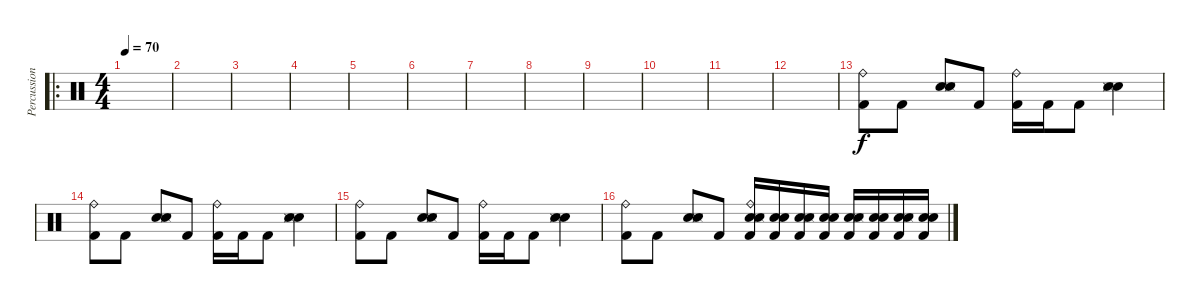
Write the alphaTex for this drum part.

\track ("Percussion2" "Percussion") {instrument percussion}
\staff {score}
\articulation defaults
\ro
\ts (4 4)
\tempo 70
\clef neutral
\ks c
|
|
|
|
|
|
|
|
|
|
|
|
("Kick (hit) 2" "Ride (bell)").8 "Kick (hit) 2".8 ("Hand Clap (hit)" "Electric Snare (hit)" "Snare (side stick) 3").8 "Kick (hit) 2".8 ("Kick (hit) 2" "Ride (bell)").16 "Kick (hit) 2".16 "Kick (hit) 2".8 ("Hand Clap (hit)" "Electric Snare (hit)" "Snare (side stick) 3").4 |
("Kick (hit) 2" "Ride (bell)").8 "Kick (hit) 2".8 ("Hand Clap (hit)" "Electric Snare (hit)" "Snare (side stick) 3").8 "Kick (hit) 2".8 ("Kick (hit) 2" "Ride (bell)").16 "Kick (hit) 2".16 "Kick (hit) 2".8 ("Hand Clap (hit)" "Electric Snare (hit)" "Snare (side stick) 3").4 |
("Kick (hit) 2" "Ride (bell)").8 "Kick (hit) 2".8 ("Hand Clap (hit)" "Electric Snare (hit)" "Snare (side stick) 3").8 "Kick (hit) 2".8 ("Kick (hit) 2" "Ride (bell)").16 "Kick (hit) 2".16 "Kick (hit) 2".8 ("Hand Clap (hit)" "Electric Snare (hit)" "Snare (side stick) 3").4 |
("Kick (hit) 2" "Ride (bell)").8 "Kick (hit) 2".8 ("Hand Clap (hit)" "Electric Snare (hit)" "Snare (side stick) 3").8 "Kick (hit) 2".8 ("Kick (hit) 2" "Hand Clap (hit)" "Electric Snare (hit)" "Snare (side stick) 3" "Ride (bell)").16 ("Kick (hit) 2" "Hand Clap (hit)" "Electric Snare (hit)").16 ("Kick (hit) 2" "Hand Clap (hit)" "Electric Snare (hit)" "Snare (side stick) 3").16 ("Kick (hit) 2" "Hand Clap (hit)" "Electric Snare (hit)").16 ("Kick (hit) 2" "Hand Clap (hit)" "Electric Snare (hit)" "Snare (side stick) 3").16 ("Kick (hit) 2" "Hand Clap (hit)" "Electric Snare (hit)").16 ("Kick (hit) 2" "Hand Clap (hit)" "Electric Snare (hit)" "Snare (side stick) 3").16 ("Kick (hit) 2" "Hand Clap (hit)" "Electric Snare (hit)").16
